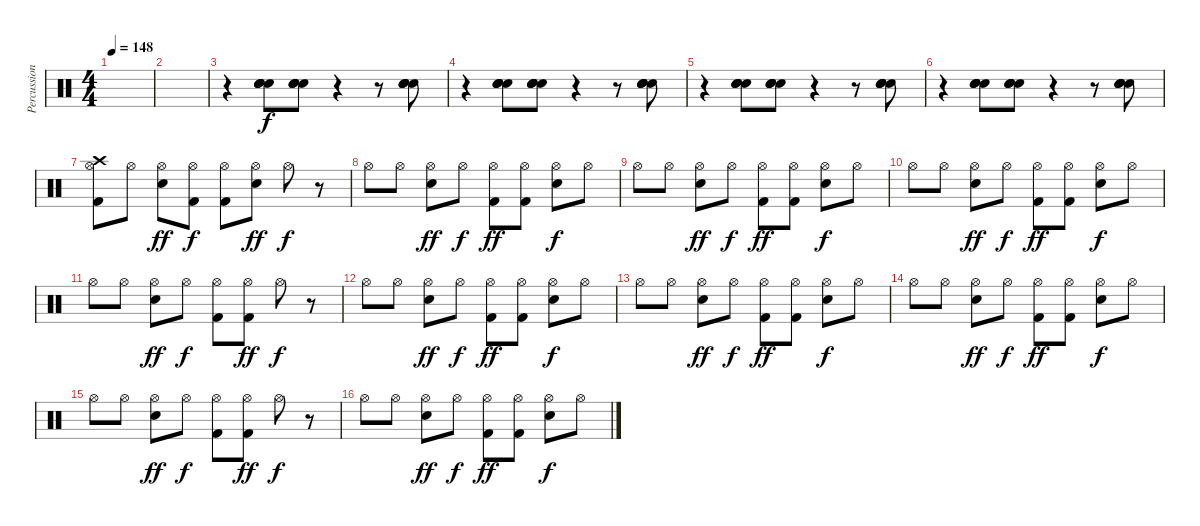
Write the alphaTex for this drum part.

\track ("Percussion" "Percussion") {instrument percussion}
\staff {score}
\articulation defaults
\ts (4 4)
\tempo 148
\clef neutral
\ks c
|
|
r.4 ("Hand Clap (hit)" "Hand Clap (hit)" "Hand Clap (hit)" "Hand Clap (hit)").8 ("Hand Clap (hit)" "Hand Clap (hit)" "Hand Clap (hit)" "Hand Clap (hit)").8 r.4 r.8 ("Hand Clap (hit)" "Hand Clap (hit)" "Hand Clap (hit)" "Hand Clap (hit)").8 |
r.4 ("Hand Clap (hit)" "Hand Clap (hit)" "Hand Clap (hit)" "Hand Clap (hit)").8 ("Hand Clap (hit)" "Hand Clap (hit)" "Hand Clap (hit)" "Hand Clap (hit)").8 r.4 r.8 ("Hand Clap (hit)" "Hand Clap (hit)" "Hand Clap (hit)" "Hand Clap (hit)").8 |
r.4 ("Hand Clap (hit)" "Hand Clap (hit)" "Hand Clap (hit)" "Hand Clap (hit)").8 ("Hand Clap (hit)" "Hand Clap (hit)" "Hand Clap (hit)" "Hand Clap (hit)").8 r.4 r.8 ("Hand Clap (hit)" "Hand Clap (hit)" "Hand Clap (hit)" "Hand Clap (hit)").8 |
r.4 ("Hand Clap (hit)" "Hand Clap (hit)" "Hand Clap (hit)" "Hand Clap (hit)").8 ("Hand Clap (hit)" "Hand Clap (hit)" "Hand Clap (hit)" "Hand Clap (hit)").8 r.4 r.8 ("Hand Clap (hit)" "Hand Clap (hit)" "Hand Clap (hit)" "Hand Clap (hit)").8 |
("Crash high (hit)" "Kick (hit) 2" "Hi-Hat (open)").8 "Hi-Hat (open)".8 ("Electric Snare (hit)" "Hi-Hat (open)").8{dy ff} ("Kick (hit) 2" "Hi-Hat (open)").8{dy f} ("Kick (hit) 2" "Hi-Hat (open)").8 ("Electric Snare (hit)" "Hi-Hat (open)").8{dy ff} "Hi-Hat (open)".8{dy f} r.8 |
"Hi-Hat (open)".8 "Hi-Hat (open)".8 ("Electric Snare (hit)" "Hi-Hat (open)").8{dy ff} "Hi-Hat (open)".8{dy f} ("Kick (hit) 2" "Hi-Hat (open)").8{dy ff} ("Kick (hit) 2" "Hi-Hat (open)").8 ("Electric Snare (hit)" "Hi-Hat (open)").8{dy f} "Hi-Hat (open)".8 |
"Hi-Hat (open)".8 "Hi-Hat (open)".8 ("Electric Snare (hit)" "Hi-Hat (open)").8{dy ff} "Hi-Hat (open)".8{dy f} ("Kick (hit) 2" "Hi-Hat (open)").8{dy ff} ("Kick (hit) 2" "Hi-Hat (open)").8 ("Electric Snare (hit)" "Hi-Hat (open)").8{dy f} "Hi-Hat (open)".8 |
"Hi-Hat (open)".8 "Hi-Hat (open)".8 ("Electric Snare (hit)" "Hi-Hat (open)").8{dy ff} "Hi-Hat (open)".8{dy f} ("Kick (hit) 2" "Hi-Hat (open)").8{dy ff} ("Kick (hit) 2" "Hi-Hat (open)").8 ("Electric Snare (hit)" "Hi-Hat (open)").8{dy f} "Hi-Hat (open)".8 |
"Hi-Hat (open)".8 "Hi-Hat (open)".8 ("Electric Snare (hit)" "Hi-Hat (open)").8{dy ff} "Hi-Hat (open)".8{dy f} ("Kick (hit) 2" "Hi-Hat (open)").8 ("Kick (hit) 2" "Hi-Hat (open)").8{dy ff} "Hi-Hat (open)".8{dy f} r.8 |
"Hi-Hat (open)".8 "Hi-Hat (open)".8 ("Electric Snare (hit)" "Hi-Hat (open)").8{dy ff} "Hi-Hat (open)".8{dy f} ("Kick (hit) 2" "Hi-Hat (open)").8{dy ff} ("Kick (hit) 2" "Hi-Hat (open)").8 ("Electric Snare (hit)" "Hi-Hat (open)").8{dy f} "Hi-Hat (open)".8 |
"Hi-Hat (open)".8 "Hi-Hat (open)".8 ("Electric Snare (hit)" "Hi-Hat (open)").8{dy ff} "Hi-Hat (open)".8{dy f} ("Kick (hit) 2" "Hi-Hat (open)").8{dy ff} ("Kick (hit) 2" "Hi-Hat (open)").8 ("Electric Snare (hit)" "Hi-Hat (open)").8{dy f} "Hi-Hat (open)".8 |
"Hi-Hat (open)".8 "Hi-Hat (open)".8 ("Electric Snare (hit)" "Hi-Hat (open)").8{dy ff} "Hi-Hat (open)".8{dy f} ("Kick (hit) 2" "Hi-Hat (open)").8{dy ff} ("Kick (hit) 2" "Hi-Hat (open)").8 ("Electric Snare (hit)" "Hi-Hat (open)").8{dy f} "Hi-Hat (open)".8 |
"Hi-Hat (open)".8 "Hi-Hat (open)".8 ("Electric Snare (hit)" "Hi-Hat (open)").8{dy ff} "Hi-Hat (open)".8{dy f} ("Kick (hit) 2" "Hi-Hat (open)").8 ("Kick (hit) 2" "Hi-Hat (open)").8{dy ff} "Hi-Hat (open)".8{dy f} r.8 |
"Hi-Hat (open)".8 "Hi-Hat (open)".8 ("Electric Snare (hit)" "Hi-Hat (open)").8{dy ff} "Hi-Hat (open)".8{dy f} ("Kick (hit) 2" "Hi-Hat (open)").8{dy ff} ("Kick (hit) 2" "Hi-Hat (open)").8 ("Electric Snare (hit)" "Hi-Hat (open)").8{dy f} "Hi-Hat (open)".8
